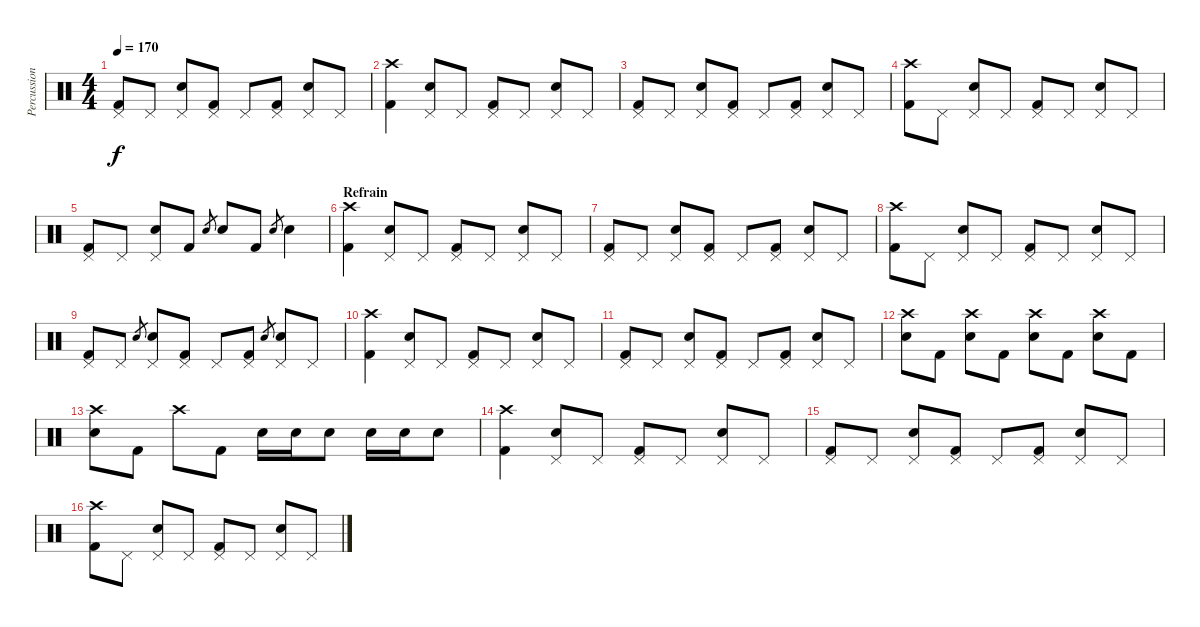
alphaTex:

\track ("Percussions" "Percussion") {instrument percussion}
\staff {score}
\articulation defaults
\ts (4 4)
\tempo 170
\clef neutral
\ks c
("Pedal Hi-Hat (hit)" "Kick (hit) 2").8{dy f} "Pedal Hi-Hat (hit)".8 ("Pedal Hi-Hat (hit)" "Electric Snare (hit)").8 ("Pedal Hi-Hat (hit)" "Kick (hit) 2").8 "Pedal Hi-Hat (hit)".8 ("Pedal Hi-Hat (hit)" "Kick (hit) 2").8 ("Pedal Hi-Hat (hit)" "Electric Snare (hit)").8 "Pedal Hi-Hat (hit)".8 |
("Crash high (hit)" "Kick (hit) 2").4 ("Pedal Hi-Hat (hit)" "Electric Snare (hit)").8 "Pedal Hi-Hat (hit)".8 ("Pedal Hi-Hat (hit)" "Kick (hit) 2").8 "Pedal Hi-Hat (hit)".8 ("Pedal Hi-Hat (hit)" "Electric Snare (hit)").8 "Pedal Hi-Hat (hit)".8 |
("Pedal Hi-Hat (hit)" "Kick (hit) 2").8 "Pedal Hi-Hat (hit)".8 ("Pedal Hi-Hat (hit)" "Electric Snare (hit)").8 ("Pedal Hi-Hat (hit)" "Kick (hit) 2").8 "Pedal Hi-Hat (hit)".8 ("Pedal Hi-Hat (hit)" "Kick (hit) 2").8 ("Pedal Hi-Hat (hit)" "Electric Snare (hit)").8 "Pedal Hi-Hat (hit)".8 |
("Crash high (hit)" "Kick (hit) 2").8 "Pedal Hi-Hat (hit)".8 ("Pedal Hi-Hat (hit)" "Electric Snare (hit)").8 "Pedal Hi-Hat (hit)".8 ("Pedal Hi-Hat (hit)" "Kick (hit) 2").8 "Pedal Hi-Hat (hit)".8 ("Pedal Hi-Hat (hit)" "Electric Snare (hit)").8 "Pedal Hi-Hat (hit)".8 |
("Pedal Hi-Hat (hit)" "Kick (hit) 2").8 "Pedal Hi-Hat (hit)".8 ("Pedal Hi-Hat (hit)" "Electric Snare (hit)").8 "Kick (hit) 2".8 "Electric Snare (hit)".8{gr} "Electric Snare (hit)".8 "Kick (hit) 2".8 "Electric Snare (hit)".8{gr} "Electric Snare (hit)".4 |
\section ("" "Refrain")
("Crash high (hit)" "Kick (hit) 2").4 ("Pedal Hi-Hat (hit)" "Electric Snare (hit)").8 "Pedal Hi-Hat (hit)".8 ("Pedal Hi-Hat (hit)" "Kick (hit) 2").8 "Pedal Hi-Hat (hit)".8 ("Pedal Hi-Hat (hit)" "Electric Snare (hit)").8 "Pedal Hi-Hat (hit)".8 |
("Pedal Hi-Hat (hit)" "Kick (hit) 2").8 "Pedal Hi-Hat (hit)".8 ("Pedal Hi-Hat (hit)" "Electric Snare (hit)").8 ("Pedal Hi-Hat (hit)" "Kick (hit) 2").8 "Pedal Hi-Hat (hit)".8 ("Pedal Hi-Hat (hit)" "Kick (hit) 2").8 ("Pedal Hi-Hat (hit)" "Electric Snare (hit)").8 "Pedal Hi-Hat (hit)".8 |
("Crash high (hit)" "Kick (hit) 2").8 "Pedal Hi-Hat (hit)".8 ("Pedal Hi-Hat (hit)" "Electric Snare (hit)").8 "Pedal Hi-Hat (hit)".8 ("Pedal Hi-Hat (hit)" "Kick (hit) 2").8 "Pedal Hi-Hat (hit)".8 ("Pedal Hi-Hat (hit)" "Electric Snare (hit)").8 "Pedal Hi-Hat (hit)".8 |
("Pedal Hi-Hat (hit)" "Kick (hit) 2").8 "Pedal Hi-Hat (hit)".8 "Electric Snare (hit)".8{gr} ("Pedal Hi-Hat (hit)" "Electric Snare (hit)").8 ("Pedal Hi-Hat (hit)" "Kick (hit) 2").8 "Pedal Hi-Hat (hit)".8 ("Pedal Hi-Hat (hit)" "Kick (hit) 2").8 "Electric Snare (hit)".8{gr} ("Pedal Hi-Hat (hit)" "Electric Snare (hit)").8 "Pedal Hi-Hat (hit)".8 |
("Crash high (hit)" "Kick (hit) 2").4 ("Pedal Hi-Hat (hit)" "Electric Snare (hit)").8 "Pedal Hi-Hat (hit)".8 ("Pedal Hi-Hat (hit)" "Kick (hit) 2").8 "Pedal Hi-Hat (hit)".8 ("Pedal Hi-Hat (hit)" "Electric Snare (hit)").8 "Pedal Hi-Hat (hit)".8 |
("Pedal Hi-Hat (hit)" "Kick (hit) 2").8 "Pedal Hi-Hat (hit)".8 ("Pedal Hi-Hat (hit)" "Electric Snare (hit)").8 ("Pedal Hi-Hat (hit)" "Kick (hit) 2").8 "Pedal Hi-Hat (hit)".8 ("Pedal Hi-Hat (hit)" "Kick (hit) 2").8 ("Pedal Hi-Hat (hit)" "Electric Snare (hit)").8 "Pedal Hi-Hat (hit)".8 |
("Crash high (hit)" "Electric Snare (hit)").8 "Kick (hit) 2".8 ("Crash high (hit)" "Electric Snare (hit)").8 "Kick (hit) 2".8 ("Crash high (hit)" "Electric Snare (hit)").8 "Kick (hit) 2".8 ("Crash high (hit)" "Electric Snare (hit)").8 "Kick (hit) 2".8 |
("Crash high (hit)" "Electric Snare (hit)").8 "Kick (hit) 2".8 "Crash high (hit)".8 "Kick (hit) 2".8 "Electric Snare (hit)".16 "Electric Snare (hit)".16 "Electric Snare (hit)".8 "Electric Snare (hit)".16 "Electric Snare (hit)".16 "Electric Snare (hit)".8 |
("Crash high (hit)" "Kick (hit) 2").4 ("Pedal Hi-Hat (hit)" "Electric Snare (hit)").8 "Pedal Hi-Hat (hit)".8 ("Pedal Hi-Hat (hit)" "Kick (hit) 2").8 "Pedal Hi-Hat (hit)".8 ("Pedal Hi-Hat (hit)" "Electric Snare (hit)").8 "Pedal Hi-Hat (hit)".8 |
("Pedal Hi-Hat (hit)" "Kick (hit) 2").8 "Pedal Hi-Hat (hit)".8 ("Pedal Hi-Hat (hit)" "Electric Snare (hit)").8 ("Pedal Hi-Hat (hit)" "Kick (hit) 2").8 "Pedal Hi-Hat (hit)".8 ("Pedal Hi-Hat (hit)" "Kick (hit) 2").8 ("Pedal Hi-Hat (hit)" "Electric Snare (hit)").8 "Pedal Hi-Hat (hit)".8 |
("Crash high (hit)" "Kick (hit) 2").8 "Pedal Hi-Hat (hit)".8 ("Pedal Hi-Hat (hit)" "Electric Snare (hit)").8 "Pedal Hi-Hat (hit)".8 ("Pedal Hi-Hat (hit)" "Kick (hit) 2").8 "Pedal Hi-Hat (hit)".8 ("Pedal Hi-Hat (hit)" "Electric Snare (hit)").8 "Pedal Hi-Hat (hit)".8
